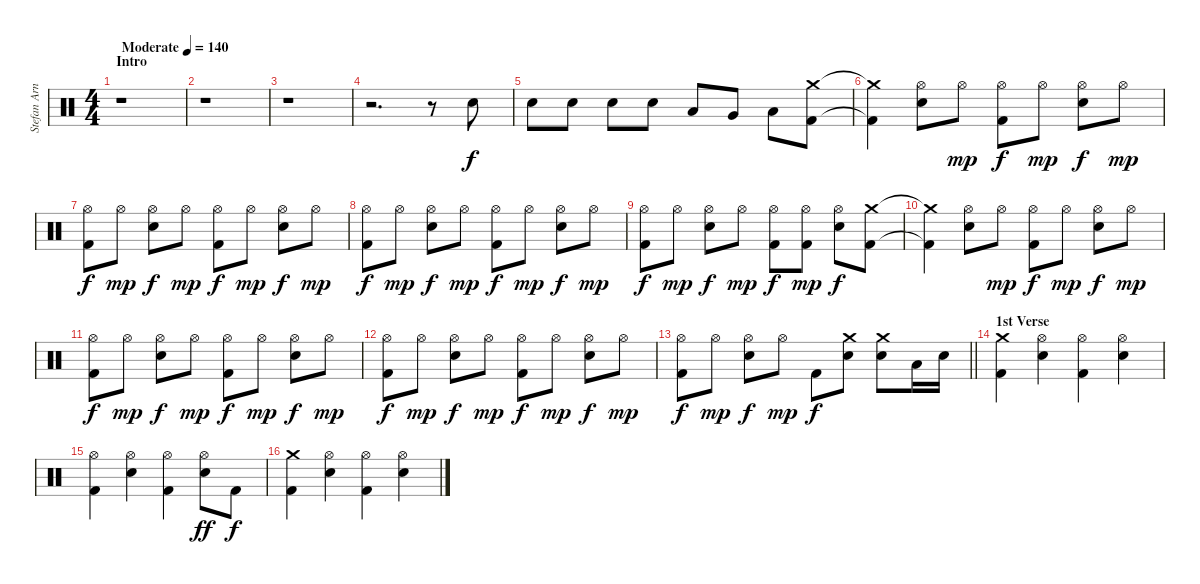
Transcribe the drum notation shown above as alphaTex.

\track ("Stefan Arnold" "Stefan Arn") {instrument percussion}
\staff {score}
\articulation defaults
\ts (4 4)
\section ("" "Intro")
\tempo (140 "Moderate")
\tempo 130
\tempo (140 "Moderate")
\clef neutral
\ks c
r.1{dy f} |
r.1 |
r.1 |
r.2{d} r.8 "Electric Snare (hit)".8 |
"Electric Snare (hit)".8 "Electric Snare (hit)".8 "Electric Snare (hit)".8 "Electric Snare (hit)".8 "Low Tom (hit)".8 "Very Low Tom (hit)".8 "Low Floor Tom (hit)".8 ("Crash medium (hit)" "Kick (hit) 2").8 |
("Crash medium (hit)"{t} "Kick (hit) 2"{t}).4 ("Hi-Hat (open)" "Electric Snare (hit)").8 "Hi-Hat (open)".8{dy mp} ("Hi-Hat (open)" "Kick (hit) 2").8{dy f} "Hi-Hat (open)".8{dy mp} ("Hi-Hat (open)" "Electric Snare (hit)").8{dy f} "Hi-Hat (open)".8{dy mp} |
("Hi-Hat (open)" "Kick (hit) 2").8{dy f} "Hi-Hat (open)".8{dy mp} ("Hi-Hat (open)" "Electric Snare (hit)").8{dy f} "Hi-Hat (open)".8{dy mp} ("Hi-Hat (open)" "Kick (hit) 2").8{dy f} "Hi-Hat (open)".8{dy mp} ("Hi-Hat (open)" "Electric Snare (hit)").8{dy f} "Hi-Hat (open)".8{dy mp} |
("Hi-Hat (open)" "Kick (hit) 2").8{dy f} "Hi-Hat (open)".8{dy mp} ("Hi-Hat (open)" "Electric Snare (hit)").8{dy f} "Hi-Hat (open)".8{dy mp} ("Hi-Hat (open)" "Kick (hit) 2").8{dy f} "Hi-Hat (open)".8{dy mp} ("Hi-Hat (open)" "Electric Snare (hit)").8{dy f} "Hi-Hat (open)".8{dy mp} |
("Hi-Hat (open)" "Kick (hit) 2").8{dy f} "Hi-Hat (open)".8{dy mp} ("Hi-Hat (open)" "Electric Snare (hit)").8{dy f} "Hi-Hat (open)".8{dy mp} ("Hi-Hat (open)" "Kick (hit) 2").8{dy f} ("Hi-Hat (open)" "Kick (hit) 2").8{dy mp} ("Hi-Hat (open)" "Electric Snare (hit)").8{dy f} ("Crash medium (hit)" "Kick (hit) 2").8 |
("Crash medium (hit)"{t} "Kick (hit) 2"{t}).4 ("Hi-Hat (open)" "Electric Snare (hit)").8 "Hi-Hat (open)".8{dy mp} ("Hi-Hat (open)" "Kick (hit) 2").8{dy f} "Hi-Hat (open)".8{dy mp} ("Hi-Hat (open)" "Electric Snare (hit)").8{dy f} "Hi-Hat (open)".8{dy mp} |
("Hi-Hat (open)" "Kick (hit) 2").8{dy f} "Hi-Hat (open)".8{dy mp} ("Hi-Hat (open)" "Electric Snare (hit)").8{dy f} "Hi-Hat (open)".8{dy mp} ("Hi-Hat (open)" "Kick (hit) 2").8{dy f} "Hi-Hat (open)".8{dy mp} ("Hi-Hat (open)" "Electric Snare (hit)").8{dy f} "Hi-Hat (open)".8{dy mp} |
("Hi-Hat (open)" "Kick (hit) 2").8{dy f} "Hi-Hat (open)".8{dy mp} ("Hi-Hat (open)" "Electric Snare (hit)").8{dy f} "Hi-Hat (open)".8{dy mp} ("Hi-Hat (open)" "Kick (hit) 2").8{dy f} "Hi-Hat (open)".8{dy mp} ("Hi-Hat (open)" "Electric Snare (hit)").8{dy f} "Hi-Hat (open)".8{dy mp} |
\barLineRight lightlight
("Hi-Hat (open)" "Kick (hit) 2").8{dy f} "Hi-Hat (open)".8{dy mp} ("Hi-Hat (open)" "Electric Snare (hit)").8{dy f} "Hi-Hat (open)".8{dy mp} "Kick (hit) 2".8{dy f} ("Crash medium (hit)" "Electric Snare (hit)").8 ("Crash medium (hit)" "Electric Snare (hit)").8 "Low Tom (hit)".16 "Electric Snare (hit)".16 |
\section ("" "1st Verse")
("Crash medium (hit)" "Kick (hit) 2").4 ("Hi-Hat (open)" "Electric Snare (hit)").4 ("Hi-Hat (open)" "Kick (hit) 2").4 ("Hi-Hat (open)" "Electric Snare (hit)").4 |
("Hi-Hat (open)" "Kick (hit) 2").4 ("Hi-Hat (open)" "Electric Snare (hit)").4 ("Hi-Hat (open)" "Kick (hit) 2").4 ("Hi-Hat (open)" "Electric Snare (hit)").8{dy ff} "Kick (hit) 2".8{dy f} |
("Crash medium (hit)" "Kick (hit) 2").4 ("Hi-Hat (open)" "Electric Snare (hit)").4 ("Hi-Hat (open)" "Kick (hit) 2").4 ("Hi-Hat (open)" "Electric Snare (hit)").4
